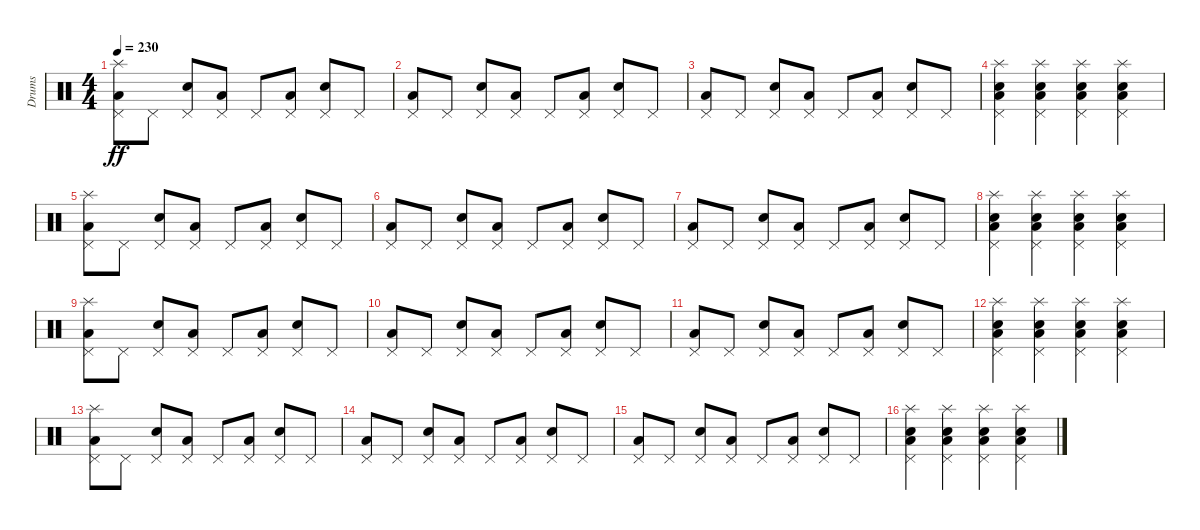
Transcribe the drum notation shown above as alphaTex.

\track ("Drums" "Drums") {instrument percussion}
\staff {score}
\articulation defaults
\ts (4 4)
\tempo 230
\clef neutral
\ks c
("Low Floor Tom (hit)" "Pedal Hi-Hat (hit)" "Splash (hit)").8{dy ff} "Pedal Hi-Hat (hit)".8 ("Electric Snare (hit)" "Pedal Hi-Hat (hit)").8 ("Low Floor Tom (hit)" "Pedal Hi-Hat (hit)").8 "Pedal Hi-Hat (hit)".8 ("Low Floor Tom (hit)" "Pedal Hi-Hat (hit)").8 ("Electric Snare (hit)" "Pedal Hi-Hat (hit)").8 "Pedal Hi-Hat (hit)".8 |
("Low Floor Tom (hit)" "Pedal Hi-Hat (hit)").8 "Pedal Hi-Hat (hit)".8 ("Electric Snare (hit)" "Pedal Hi-Hat (hit)").8 ("Low Floor Tom (hit)" "Pedal Hi-Hat (hit)").8 "Pedal Hi-Hat (hit)".8 ("Low Floor Tom (hit)" "Pedal Hi-Hat (hit)").8 ("Electric Snare (hit)" "Pedal Hi-Hat (hit)").8 "Pedal Hi-Hat (hit)".8 |
("Low Floor Tom (hit)" "Pedal Hi-Hat (hit)").8 "Pedal Hi-Hat (hit)".8 ("Electric Snare (hit)" "Pedal Hi-Hat (hit)").8 ("Low Floor Tom (hit)" "Pedal Hi-Hat (hit)").8 "Pedal Hi-Hat (hit)".8 ("Low Floor Tom (hit)" "Pedal Hi-Hat (hit)").8 ("Electric Snare (hit)" "Pedal Hi-Hat (hit)").8 "Pedal Hi-Hat (hit)".8 |
("Electric Snare (hit)" "Low Floor Tom (hit)" "Pedal Hi-Hat (hit)" "Splash (hit)").4 ("Electric Snare (hit)" "Low Floor Tom (hit)" "Pedal Hi-Hat (hit)" "Splash (hit)").4 ("Electric Snare (hit)" "Low Floor Tom (hit)" "Pedal Hi-Hat (hit)" "Splash (hit)").4 ("Electric Snare (hit)" "Low Floor Tom (hit)" "Pedal Hi-Hat (hit)" "Splash (hit)").4 |
("Low Floor Tom (hit)" "Pedal Hi-Hat (hit)" "Splash (hit)").8 "Pedal Hi-Hat (hit)".8 ("Electric Snare (hit)" "Pedal Hi-Hat (hit)").8 ("Low Floor Tom (hit)" "Pedal Hi-Hat (hit)").8 "Pedal Hi-Hat (hit)".8 ("Low Floor Tom (hit)" "Pedal Hi-Hat (hit)").8 ("Electric Snare (hit)" "Pedal Hi-Hat (hit)").8 "Pedal Hi-Hat (hit)".8 |
("Low Floor Tom (hit)" "Pedal Hi-Hat (hit)").8 "Pedal Hi-Hat (hit)".8 ("Electric Snare (hit)" "Pedal Hi-Hat (hit)").8 ("Low Floor Tom (hit)" "Pedal Hi-Hat (hit)").8 "Pedal Hi-Hat (hit)".8 ("Low Floor Tom (hit)" "Pedal Hi-Hat (hit)").8 ("Electric Snare (hit)" "Pedal Hi-Hat (hit)").8 "Pedal Hi-Hat (hit)".8 |
("Low Floor Tom (hit)" "Pedal Hi-Hat (hit)").8 "Pedal Hi-Hat (hit)".8 ("Electric Snare (hit)" "Pedal Hi-Hat (hit)").8 ("Low Floor Tom (hit)" "Pedal Hi-Hat (hit)").8 "Pedal Hi-Hat (hit)".8 ("Low Floor Tom (hit)" "Pedal Hi-Hat (hit)").8 ("Electric Snare (hit)" "Pedal Hi-Hat (hit)").8 "Pedal Hi-Hat (hit)".8 |
("Electric Snare (hit)" "Low Floor Tom (hit)" "Pedal Hi-Hat (hit)" "Splash (hit)").4 ("Electric Snare (hit)" "Low Floor Tom (hit)" "Pedal Hi-Hat (hit)" "Splash (hit)").4 ("Electric Snare (hit)" "Low Floor Tom (hit)" "Pedal Hi-Hat (hit)" "Splash (hit)").4 ("Electric Snare (hit)" "Low Floor Tom (hit)" "Pedal Hi-Hat (hit)" "Splash (hit)").4 |
("Low Floor Tom (hit)" "Pedal Hi-Hat (hit)" "Splash (hit)").8 "Pedal Hi-Hat (hit)".8 ("Electric Snare (hit)" "Pedal Hi-Hat (hit)").8 ("Low Floor Tom (hit)" "Pedal Hi-Hat (hit)").8 "Pedal Hi-Hat (hit)".8 ("Low Floor Tom (hit)" "Pedal Hi-Hat (hit)").8 ("Electric Snare (hit)" "Pedal Hi-Hat (hit)").8 "Pedal Hi-Hat (hit)".8 |
("Low Floor Tom (hit)" "Pedal Hi-Hat (hit)").8 "Pedal Hi-Hat (hit)".8 ("Electric Snare (hit)" "Pedal Hi-Hat (hit)").8 ("Low Floor Tom (hit)" "Pedal Hi-Hat (hit)").8 "Pedal Hi-Hat (hit)".8 ("Low Floor Tom (hit)" "Pedal Hi-Hat (hit)").8 ("Electric Snare (hit)" "Pedal Hi-Hat (hit)").8 "Pedal Hi-Hat (hit)".8 |
("Low Floor Tom (hit)" "Pedal Hi-Hat (hit)").8 "Pedal Hi-Hat (hit)".8 ("Electric Snare (hit)" "Pedal Hi-Hat (hit)").8 ("Low Floor Tom (hit)" "Pedal Hi-Hat (hit)").8 "Pedal Hi-Hat (hit)".8 ("Low Floor Tom (hit)" "Pedal Hi-Hat (hit)").8 ("Electric Snare (hit)" "Pedal Hi-Hat (hit)").8 "Pedal Hi-Hat (hit)".8 |
("Electric Snare (hit)" "Low Floor Tom (hit)" "Pedal Hi-Hat (hit)" "Splash (hit)").4 ("Electric Snare (hit)" "Low Floor Tom (hit)" "Pedal Hi-Hat (hit)" "Splash (hit)").4 ("Electric Snare (hit)" "Low Floor Tom (hit)" "Pedal Hi-Hat (hit)" "Splash (hit)").4 ("Electric Snare (hit)" "Low Floor Tom (hit)" "Pedal Hi-Hat (hit)" "Splash (hit)").4 |
("Low Floor Tom (hit)" "Pedal Hi-Hat (hit)" "Splash (hit)").8 "Pedal Hi-Hat (hit)".8 ("Electric Snare (hit)" "Pedal Hi-Hat (hit)").8 ("Low Floor Tom (hit)" "Pedal Hi-Hat (hit)").8 "Pedal Hi-Hat (hit)".8 ("Low Floor Tom (hit)" "Pedal Hi-Hat (hit)").8 ("Electric Snare (hit)" "Pedal Hi-Hat (hit)").8 "Pedal Hi-Hat (hit)".8 |
("Low Floor Tom (hit)" "Pedal Hi-Hat (hit)").8 "Pedal Hi-Hat (hit)".8 ("Electric Snare (hit)" "Pedal Hi-Hat (hit)").8 ("Low Floor Tom (hit)" "Pedal Hi-Hat (hit)").8 "Pedal Hi-Hat (hit)".8 ("Low Floor Tom (hit)" "Pedal Hi-Hat (hit)").8 ("Electric Snare (hit)" "Pedal Hi-Hat (hit)").8 "Pedal Hi-Hat (hit)".8 |
("Low Floor Tom (hit)" "Pedal Hi-Hat (hit)").8 "Pedal Hi-Hat (hit)".8 ("Electric Snare (hit)" "Pedal Hi-Hat (hit)").8 ("Low Floor Tom (hit)" "Pedal Hi-Hat (hit)").8 "Pedal Hi-Hat (hit)".8 ("Low Floor Tom (hit)" "Pedal Hi-Hat (hit)").8 ("Electric Snare (hit)" "Pedal Hi-Hat (hit)").8 "Pedal Hi-Hat (hit)".8 |
("Electric Snare (hit)" "Low Floor Tom (hit)" "Pedal Hi-Hat (hit)" "Splash (hit)").4 ("Electric Snare (hit)" "Low Floor Tom (hit)" "Pedal Hi-Hat (hit)" "Splash (hit)").4 ("Electric Snare (hit)" "Low Floor Tom (hit)" "Pedal Hi-Hat (hit)" "Splash (hit)").4 ("Electric Snare (hit)" "Low Floor Tom (hit)" "Pedal Hi-Hat (hit)" "Splash (hit)").4
